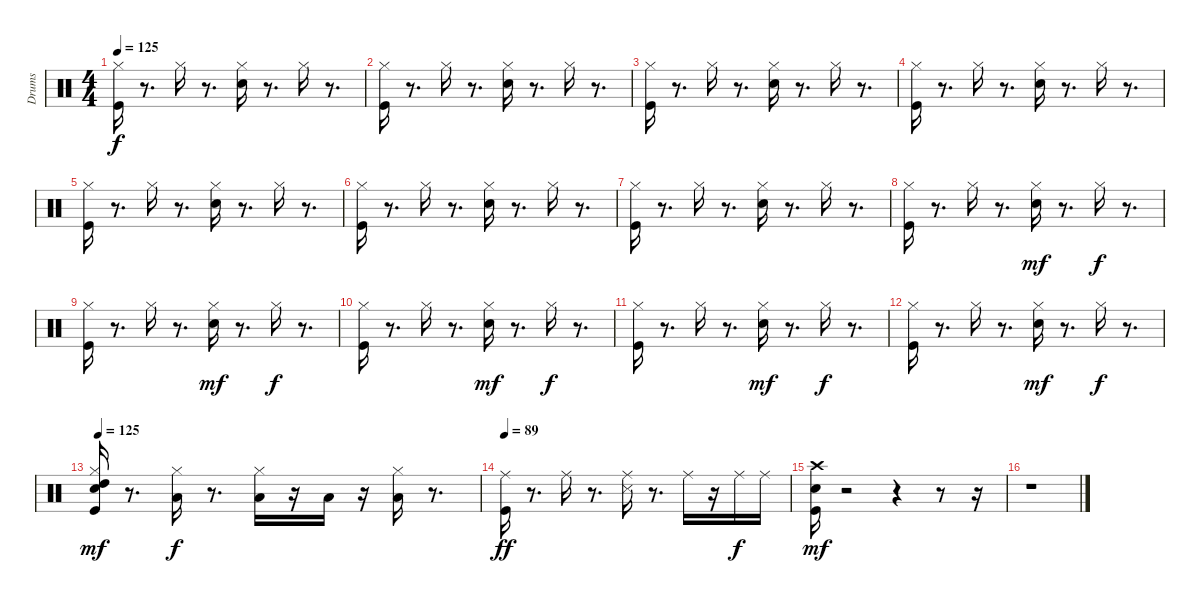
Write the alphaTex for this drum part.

\track ("Drums" "Drums") {instrument percussion}
\staff {score}
\articulation defaults
\ts (4 4)
\tempo 125
\clef neutral
\ks c
("Kick (hit)" "Hi-Hat (closed)").16{dy f} r.8{d} "Hi-Hat (closed)".16 r.8{d} ("Snare (hit) 2" "Hi-Hat (closed)").16 r.8{d} "Hi-Hat (closed)".16 r.8{d} |
("Kick (hit)" "Hi-Hat (closed)").16 r.8{d} "Hi-Hat (closed)".16 r.8{d} ("Snare (hit) 2" "Hi-Hat (closed)").16 r.8{d} "Hi-Hat (closed)".16 r.8{d} |
("Kick (hit)" "Hi-Hat (closed)").16 r.8{d} "Hi-Hat (closed)".16 r.8{d} ("Snare (hit) 2" "Hi-Hat (closed)").16 r.8{d} "Hi-Hat (closed)".16 r.8{d} |
("Kick (hit)" "Hi-Hat (closed)").16 r.8{d} "Hi-Hat (closed)".16 r.8{d} ("Snare (hit) 2" "Hi-Hat (closed)").16 r.8{d} "Hi-Hat (closed)".16 r.8{d} |
("Kick (hit)" "Hi-Hat (closed)").16 r.8{d} "Hi-Hat (closed)".16 r.8{d} ("Snare (hit) 2" "Hi-Hat (closed)").16 r.8{d} "Hi-Hat (closed)".16 r.8{d} |
("Kick (hit)" "Hi-Hat (closed)").16 r.8{d} "Hi-Hat (closed)".16 r.8{d} ("Snare (hit) 2" "Hi-Hat (closed)").16 r.8{d} "Hi-Hat (closed)".16 r.8{d} |
("Kick (hit)" "Hi-Hat (closed)").16 r.8{d} "Hi-Hat (closed)".16 r.8{d} ("Snare (hit) 2" "Hi-Hat (closed)").16 r.8{d} "Hi-Hat (closed)".16 r.8{d} |
("Kick (hit)" "Hi-Hat (closed)").16 r.8{d} "Hi-Hat (closed)".16 r.8{d} ("Snare (hit) 2" "Hi-Hat (closed)").16{dy mf} r.8{d} "Hi-Hat (closed)".16{dy f} r.8{d} |
("Kick (hit)" "Hi-Hat (closed)").16 r.8{d} "Hi-Hat (closed)".16 r.8{d} ("Snare (hit) 2" "Hi-Hat (closed)").16{dy mf} r.8{d} "Hi-Hat (closed)".16{dy f} r.8{d} |
("Kick (hit)" "Hi-Hat (closed)").16 r.8{d} "Hi-Hat (closed)".16 r.8{d} ("Snare (hit) 2" "Hi-Hat (closed)").16{dy mf} r.8{d} "Hi-Hat (closed)".16{dy f} r.8{d} |
("Kick (hit)" "Hi-Hat (closed)").16 r.8{d} "Hi-Hat (closed)".16 r.8{d} ("Snare (hit) 2" "Hi-Hat (closed)").16{dy mf} r.8{d} "Hi-Hat (closed)".16{dy f} r.8{d} |
("Kick (hit)" "Hi-Hat (closed)").16 r.8{d} "Hi-Hat (closed)".16 r.8{d} ("Snare (hit) 2" "Hi-Hat (closed)").16{dy mf} r.8{d} "Hi-Hat (closed)".16{dy f} r.8{d} |
\tempo 125
("Kick (hit)" "Snare (hit) 2" "Hi-Hat (closed)" "High Tom (hit)").16{dy mf} r.8{d} ("Hi-Hat (closed)" "Low Tom (hit)").16{dy f} r.8{d} ("Hi-Hat (closed)" "Low Tom (hit)").16 r.16 "Low Floor Tom (hit)".16 r.16 ("Hi-Hat (closed)" "Low Floor Tom (hit)").16 r.8{d} |
\tempo 89
("Kick (hit)" "Ride (middle)").16{dy ff} r.8{d} "Ride (middle)".16 r.8{d} ("Snare (side stick) 3" "Ride (middle)").16 r.8{d} "Ride (middle)".16 r.16 "Ride (middle)".16{dy f} "Ride (middle)".16 |
("Kick (hit)" "Snare (hit) 2" "Crash high (hit)").16{dy mf} r.2 r.4 r.8 r.16 |
r.1
